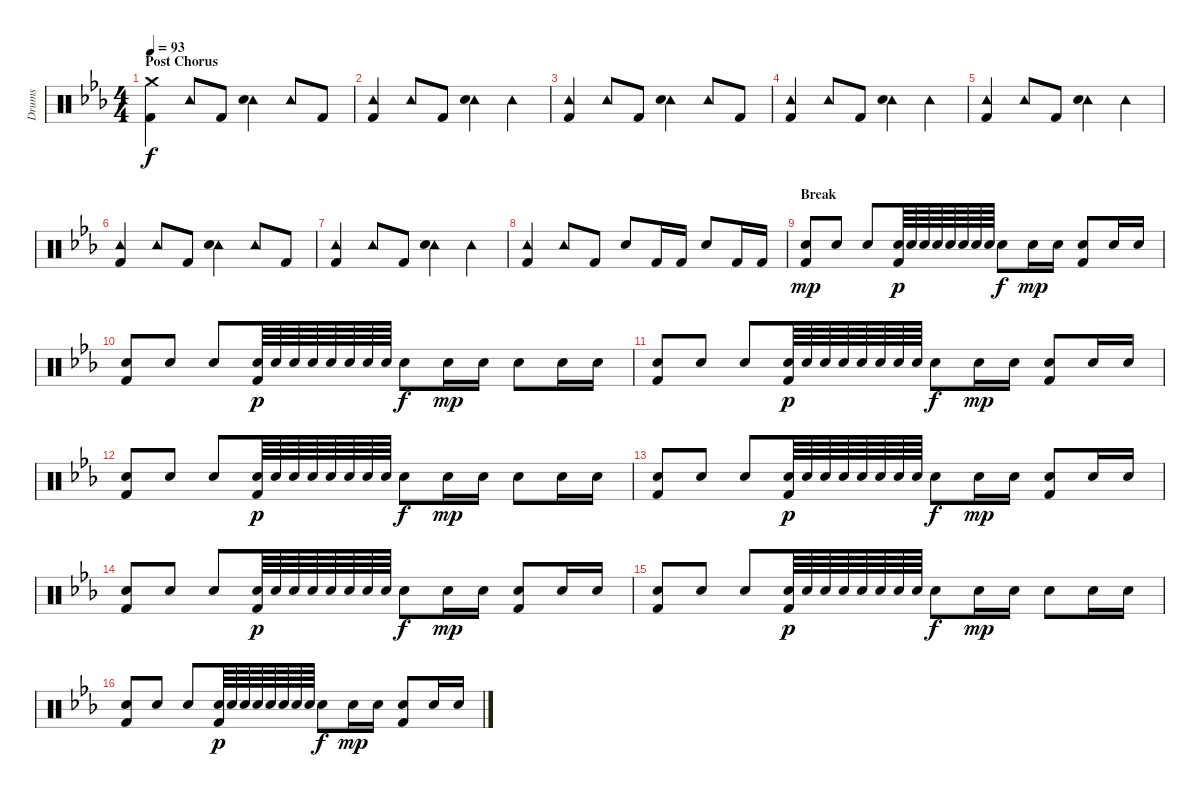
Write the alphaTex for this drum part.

\track ("Drums" "Drums") {instrument percussion}
\staff {score}
\articulation defaults
\ts (4 4)
\section ("" "Post Chorus")
\tempo 93
\clef neutral
\ks eb
("Crash medium (hit)" "Kick (hit) 2").4{dy f} "Tambourine (hit)".8 "Kick (hit) 2".8 ("Tambourine (hit)" "Snare (hit) 2").4 "Tambourine (hit)".8 "Kick (hit) 2".8 |
("Tambourine (hit)" "Kick (hit) 2").4 "Tambourine (hit)".8 "Kick (hit) 2".8 ("Tambourine (hit)" "Snare (hit) 2").4 "Tambourine (hit)".4 |
("Tambourine (hit)" "Kick (hit) 2").4 "Tambourine (hit)".8 "Kick (hit) 2".8 ("Tambourine (hit)" "Snare (hit) 2").4 "Tambourine (hit)".8 "Kick (hit) 2".8 |
("Tambourine (hit)" "Kick (hit) 2").4 "Tambourine (hit)".8 "Kick (hit) 2".8 ("Tambourine (hit)" "Snare (hit) 2").4 "Tambourine (hit)".4 |
("Tambourine (hit)" "Kick (hit) 2").4 "Tambourine (hit)".8 "Kick (hit) 2".8 ("Tambourine (hit)" "Snare (hit) 2").4 "Tambourine (hit)".4 |
("Tambourine (hit)" "Kick (hit) 2").4 "Tambourine (hit)".8 "Kick (hit) 2".8 ("Tambourine (hit)" "Snare (hit) 2").4 "Tambourine (hit)".8 "Kick (hit) 2".8 |
("Tambourine (hit)" "Kick (hit) 2").4 "Tambourine (hit)".8 "Kick (hit) 2".8 ("Tambourine (hit)" "Snare (hit) 2").4 "Tambourine (hit)".4 |
("Tambourine (hit)" "Kick (hit) 2").4 "Tambourine (hit)".8 "Kick (hit) 2".8 "Snare (hit) 2".8 "Kick (hit) 2".16 "Kick (hit) 2".16 "Snare (hit) 2".8 "Kick (hit) 2".16 "Kick (hit) 2".16 |
\section ("" "Break")
("Electric Snare (hit)" "Kick (hit) 2").8{dy mp} "Electric Snare (hit)".8 "Electric Snare (hit)".8 ("Electric Snare (hit)" "Kick (hit) 2").64{dy p} "Electric Snare (hit)".64 "Electric Snare (hit)".64 "Electric Snare (hit)".64 "Electric Snare (hit)".64 "Electric Snare (hit)".64 "Electric Snare (hit)".64 "Electric Snare (hit)".64 "Snare (hit) 2".8{dy f} "Electric Snare (hit)".16{dy mp} "Electric Snare (hit)".16 ("Electric Snare (hit)" "Kick (hit) 2").8 "Electric Snare (hit)".16 "Electric Snare (hit)".16 |
("Electric Snare (hit)" "Kick (hit) 2").8 "Electric Snare (hit)".8 "Electric Snare (hit)".8 ("Electric Snare (hit)" "Kick (hit) 2").64{dy p} "Electric Snare (hit)".64 "Electric Snare (hit)".64 "Electric Snare (hit)".64 "Electric Snare (hit)".64 "Electric Snare (hit)".64 "Electric Snare (hit)".64 "Electric Snare (hit)".64 "Snare (hit) 2".8{dy f} "Electric Snare (hit)".16{dy mp} "Electric Snare (hit)".16 "Electric Snare (hit)".8 "Electric Snare (hit)".16 "Electric Snare (hit)".16 |
("Electric Snare (hit)" "Kick (hit) 2").8 "Electric Snare (hit)".8 "Electric Snare (hit)".8 ("Electric Snare (hit)" "Kick (hit) 2").64{dy p} "Electric Snare (hit)".64 "Electric Snare (hit)".64 "Electric Snare (hit)".64 "Electric Snare (hit)".64 "Electric Snare (hit)".64 "Electric Snare (hit)".64 "Electric Snare (hit)".64 "Snare (hit) 2".8{dy f} "Electric Snare (hit)".16{dy mp} "Electric Snare (hit)".16 ("Electric Snare (hit)" "Kick (hit) 2").8 "Electric Snare (hit)".16 "Electric Snare (hit)".16 |
("Electric Snare (hit)" "Kick (hit) 2").8 "Electric Snare (hit)".8 "Electric Snare (hit)".8 ("Electric Snare (hit)" "Kick (hit) 2").64{dy p} "Electric Snare (hit)".64 "Electric Snare (hit)".64 "Electric Snare (hit)".64 "Electric Snare (hit)".64 "Electric Snare (hit)".64 "Electric Snare (hit)".64 "Electric Snare (hit)".64 "Snare (hit) 2".8{dy f} "Electric Snare (hit)".16{dy mp} "Electric Snare (hit)".16 "Electric Snare (hit)".8 "Electric Snare (hit)".16 "Electric Snare (hit)".16 |
("Electric Snare (hit)" "Kick (hit) 2").8 "Electric Snare (hit)".8 "Electric Snare (hit)".8 ("Electric Snare (hit)" "Kick (hit) 2").64{dy p} "Electric Snare (hit)".64 "Electric Snare (hit)".64 "Electric Snare (hit)".64 "Electric Snare (hit)".64 "Electric Snare (hit)".64 "Electric Snare (hit)".64 "Electric Snare (hit)".64 "Snare (hit) 2".8{dy f} "Electric Snare (hit)".16{dy mp} "Electric Snare (hit)".16 ("Electric Snare (hit)" "Kick (hit) 2").8 "Electric Snare (hit)".16 "Electric Snare (hit)".16 |
("Electric Snare (hit)" "Kick (hit) 2").8 "Electric Snare (hit)".8 "Electric Snare (hit)".8 ("Electric Snare (hit)" "Kick (hit) 2").64{dy p} "Electric Snare (hit)".64 "Electric Snare (hit)".64 "Electric Snare (hit)".64 "Electric Snare (hit)".64 "Electric Snare (hit)".64 "Electric Snare (hit)".64 "Electric Snare (hit)".64 "Snare (hit) 2".8{dy f} "Electric Snare (hit)".16{dy mp} "Electric Snare (hit)".16 ("Electric Snare (hit)" "Kick (hit) 2").8 "Electric Snare (hit)".16 "Electric Snare (hit)".16 |
("Electric Snare (hit)" "Kick (hit) 2").8 "Electric Snare (hit)".8 "Electric Snare (hit)".8 ("Electric Snare (hit)" "Kick (hit) 2").64{dy p} "Electric Snare (hit)".64 "Electric Snare (hit)".64 "Electric Snare (hit)".64 "Electric Snare (hit)".64 "Electric Snare (hit)".64 "Electric Snare (hit)".64 "Electric Snare (hit)".64 "Snare (hit) 2".8{dy f} "Electric Snare (hit)".16{dy mp} "Electric Snare (hit)".16 "Electric Snare (hit)".8 "Electric Snare (hit)".16 "Electric Snare (hit)".16 |
("Electric Snare (hit)" "Kick (hit) 2").8 "Electric Snare (hit)".8 "Electric Snare (hit)".8 ("Electric Snare (hit)" "Kick (hit) 2").64{dy p} "Electric Snare (hit)".64 "Electric Snare (hit)".64 "Electric Snare (hit)".64 "Electric Snare (hit)".64 "Electric Snare (hit)".64 "Electric Snare (hit)".64 "Electric Snare (hit)".64 "Snare (hit) 2".8{dy f} "Electric Snare (hit)".16{dy mp} "Electric Snare (hit)".16 ("Electric Snare (hit)" "Kick (hit) 2").8 "Electric Snare (hit)".16 "Electric Snare (hit)".16
